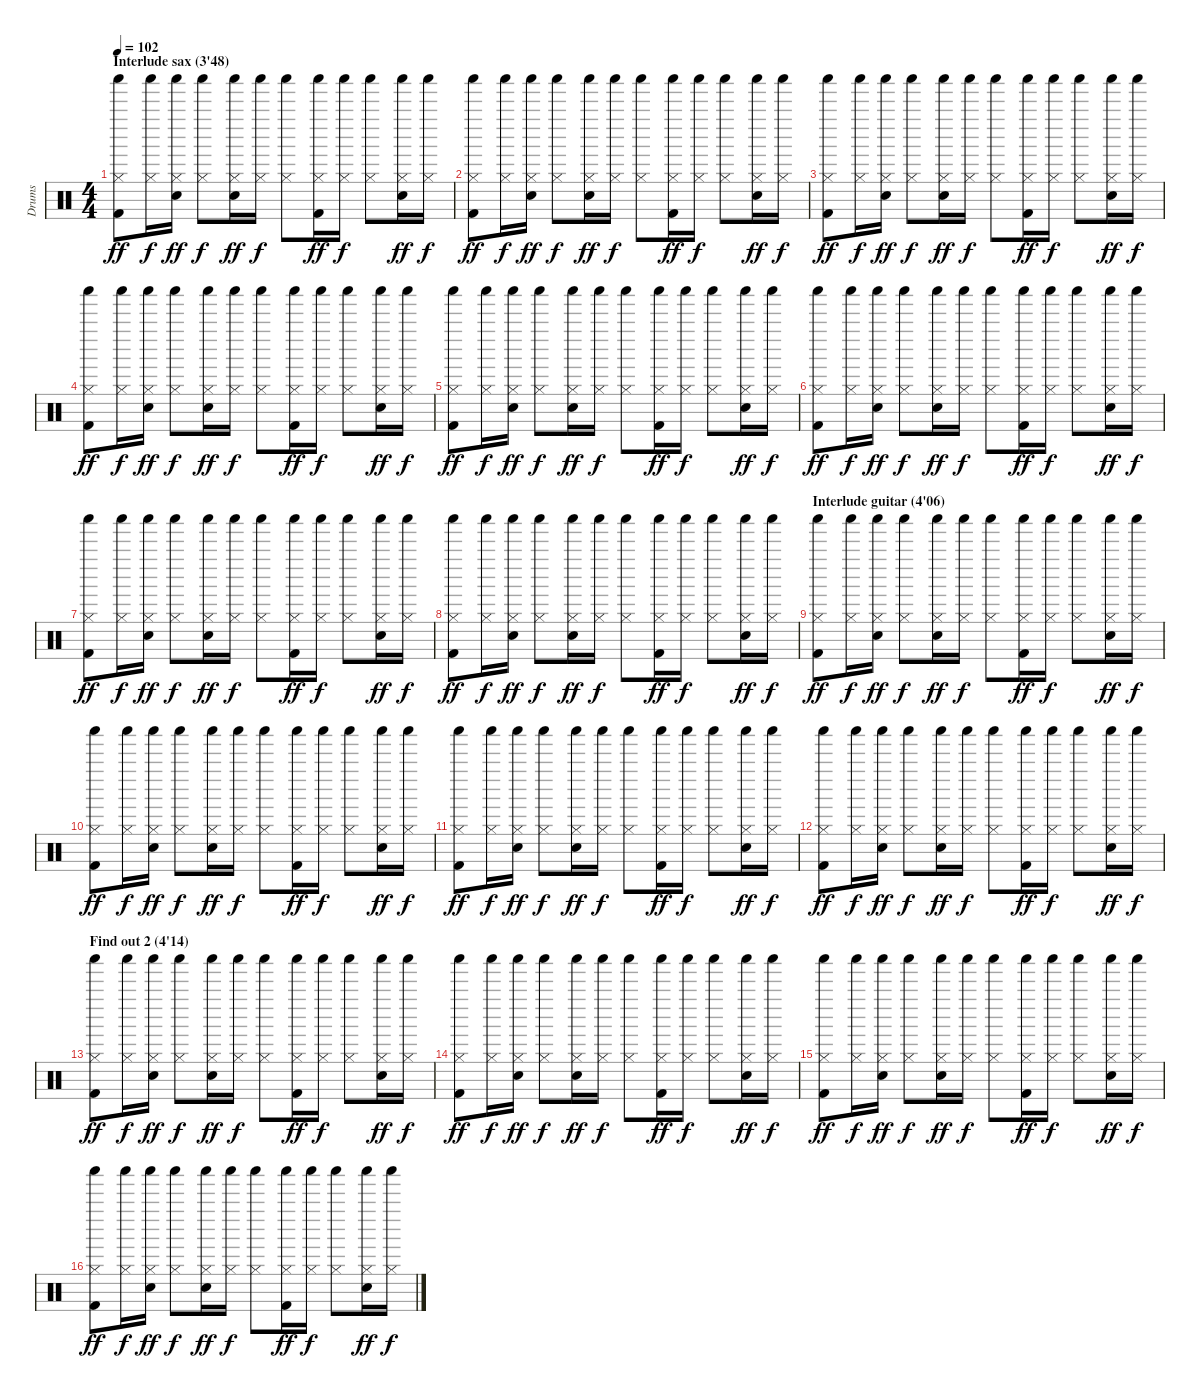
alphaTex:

\track ("Drums" "Drums") {instrument percussion}
\staff {score}
\articulation defaults
\ts (4 4)
\section ("" "Interlude sax (3'48)")
\tempo 102
\clef neutral
\ks c
("Hi-Hat (closed)" "Shaker (hit)" "Kick (hit) 2").8{dy ff} ("Hi-Hat (closed)" "Shaker (hit)").16{dy f} ("Hi-Hat (closed)" "Shaker (hit)" "Snare (hit) 2").16{dy ff} ("Hi-Hat (closed)" "Shaker (hit)").8{dy f} ("Hi-Hat (closed)" "Shaker (hit)" "Snare (hit) 2").16{dy ff} ("Hi-Hat (closed)" "Shaker (hit)").16{dy f} ("Hi-Hat (closed)" "Shaker (hit)").8 ("Hi-Hat (closed)" "Shaker (hit)" "Kick (hit) 2").16{dy ff} ("Hi-Hat (closed)" "Shaker (hit)").16{dy f} ("Hi-Hat (closed)" "Shaker (hit)").8 ("Hi-Hat (closed)" "Shaker (hit)" "Snare (hit) 2").16{dy ff} ("Hi-Hat (closed)" "Shaker (hit)").16{dy f} |
("Hi-Hat (closed)" "Shaker (hit)" "Kick (hit) 2").8{dy ff} ("Hi-Hat (closed)" "Shaker (hit)").16{dy f} ("Hi-Hat (closed)" "Shaker (hit)" "Snare (hit) 2").16{dy ff} ("Hi-Hat (closed)" "Shaker (hit)").8{dy f} ("Hi-Hat (closed)" "Shaker (hit)" "Snare (hit) 2").16{dy ff} ("Hi-Hat (closed)" "Shaker (hit)").16{dy f} ("Hi-Hat (closed)" "Shaker (hit)").8 ("Hi-Hat (closed)" "Shaker (hit)" "Kick (hit) 2").16{dy ff} ("Hi-Hat (closed)" "Shaker (hit)").16{dy f} ("Hi-Hat (closed)" "Shaker (hit)").8 ("Hi-Hat (closed)" "Shaker (hit)" "Snare (hit) 2").16{dy ff} ("Hi-Hat (closed)" "Shaker (hit)").16{dy f} |
("Hi-Hat (closed)" "Shaker (hit)" "Kick (hit) 2").8{dy ff} ("Hi-Hat (closed)" "Shaker (hit)").16{dy f} ("Hi-Hat (closed)" "Shaker (hit)" "Snare (hit) 2").16{dy ff} ("Hi-Hat (closed)" "Shaker (hit)").8{dy f} ("Hi-Hat (closed)" "Shaker (hit)" "Snare (hit) 2").16{dy ff} ("Hi-Hat (closed)" "Shaker (hit)").16{dy f} ("Hi-Hat (closed)" "Shaker (hit)").8 ("Hi-Hat (closed)" "Shaker (hit)" "Kick (hit) 2").16{dy ff} ("Hi-Hat (closed)" "Shaker (hit)").16{dy f} ("Hi-Hat (closed)" "Shaker (hit)").8 ("Hi-Hat (closed)" "Shaker (hit)" "Snare (hit) 2").16{dy ff} ("Hi-Hat (closed)" "Shaker (hit)").16{dy f} |
("Hi-Hat (closed)" "Shaker (hit)" "Kick (hit) 2").8{dy ff} ("Hi-Hat (closed)" "Shaker (hit)").16{dy f} ("Hi-Hat (closed)" "Shaker (hit)" "Snare (hit) 2").16{dy ff} ("Hi-Hat (closed)" "Shaker (hit)").8{dy f} ("Hi-Hat (closed)" "Shaker (hit)" "Snare (hit) 2").16{dy ff} ("Hi-Hat (closed)" "Shaker (hit)").16{dy f} ("Hi-Hat (closed)" "Shaker (hit)").8 ("Hi-Hat (closed)" "Shaker (hit)" "Kick (hit) 2").16{dy ff} ("Hi-Hat (closed)" "Shaker (hit)").16{dy f} ("Hi-Hat (closed)" "Shaker (hit)").8 ("Hi-Hat (closed)" "Shaker (hit)" "Snare (hit) 2").16{dy ff} ("Hi-Hat (closed)" "Shaker (hit)").16{dy f} |
("Hi-Hat (closed)" "Shaker (hit)" "Kick (hit) 2").8{dy ff} ("Hi-Hat (closed)" "Shaker (hit)").16{dy f} ("Hi-Hat (closed)" "Shaker (hit)" "Snare (hit) 2").16{dy ff} ("Hi-Hat (closed)" "Shaker (hit)").8{dy f} ("Hi-Hat (closed)" "Shaker (hit)" "Snare (hit) 2").16{dy ff} ("Hi-Hat (closed)" "Shaker (hit)").16{dy f} ("Hi-Hat (closed)" "Shaker (hit)").8 ("Hi-Hat (closed)" "Shaker (hit)" "Kick (hit) 2").16{dy ff} ("Hi-Hat (closed)" "Shaker (hit)").16{dy f} ("Hi-Hat (closed)" "Shaker (hit)").8 ("Hi-Hat (closed)" "Shaker (hit)" "Snare (hit) 2").16{dy ff} ("Hi-Hat (closed)" "Shaker (hit)").16{dy f} |
("Hi-Hat (closed)" "Shaker (hit)" "Kick (hit) 2").8{dy ff} ("Hi-Hat (closed)" "Shaker (hit)").16{dy f} ("Hi-Hat (closed)" "Shaker (hit)" "Snare (hit) 2").16{dy ff} ("Hi-Hat (closed)" "Shaker (hit)").8{dy f} ("Hi-Hat (closed)" "Shaker (hit)" "Snare (hit) 2").16{dy ff} ("Hi-Hat (closed)" "Shaker (hit)").16{dy f} ("Hi-Hat (closed)" "Shaker (hit)").8 ("Hi-Hat (closed)" "Shaker (hit)" "Kick (hit) 2").16{dy ff} ("Hi-Hat (closed)" "Shaker (hit)").16{dy f} ("Hi-Hat (closed)" "Shaker (hit)").8 ("Hi-Hat (closed)" "Shaker (hit)" "Snare (hit) 2").16{dy ff} ("Hi-Hat (closed)" "Shaker (hit)").16{dy f} |
("Hi-Hat (closed)" "Shaker (hit)" "Kick (hit) 2").8{dy ff} ("Hi-Hat (closed)" "Shaker (hit)").16{dy f} ("Hi-Hat (closed)" "Shaker (hit)" "Snare (hit) 2").16{dy ff} ("Hi-Hat (closed)" "Shaker (hit)").8{dy f} ("Hi-Hat (closed)" "Shaker (hit)" "Snare (hit) 2").16{dy ff} ("Hi-Hat (closed)" "Shaker (hit)").16{dy f} ("Hi-Hat (closed)" "Shaker (hit)").8 ("Hi-Hat (closed)" "Shaker (hit)" "Kick (hit) 2").16{dy ff} ("Hi-Hat (closed)" "Shaker (hit)").16{dy f} ("Hi-Hat (closed)" "Shaker (hit)").8 ("Hi-Hat (closed)" "Shaker (hit)" "Snare (hit) 2").16{dy ff} ("Hi-Hat (closed)" "Shaker (hit)").16{dy f} |
("Hi-Hat (closed)" "Shaker (hit)" "Kick (hit) 2").8{dy ff} ("Hi-Hat (closed)" "Shaker (hit)").16{dy f} ("Hi-Hat (closed)" "Shaker (hit)" "Snare (hit) 2").16{dy ff} ("Hi-Hat (closed)" "Shaker (hit)").8{dy f} ("Hi-Hat (closed)" "Shaker (hit)" "Snare (hit) 2").16{dy ff} ("Hi-Hat (closed)" "Shaker (hit)").16{dy f} ("Hi-Hat (closed)" "Shaker (hit)").8 ("Hi-Hat (closed)" "Shaker (hit)" "Kick (hit) 2").16{dy ff} ("Hi-Hat (closed)" "Shaker (hit)").16{dy f} ("Hi-Hat (closed)" "Shaker (hit)").8 ("Hi-Hat (closed)" "Shaker (hit)" "Snare (hit) 2").16{dy ff} ("Hi-Hat (closed)" "Shaker (hit)").16{dy f} |
\section ("" "Interlude guitar (4'06)")
("Hi-Hat (closed)" "Shaker (hit)" "Kick (hit) 2").8{dy ff} ("Hi-Hat (closed)" "Shaker (hit)").16{dy f} ("Hi-Hat (closed)" "Shaker (hit)" "Snare (hit) 2").16{dy ff} ("Hi-Hat (closed)" "Shaker (hit)").8{dy f} ("Hi-Hat (closed)" "Shaker (hit)" "Snare (hit) 2").16{dy ff} ("Hi-Hat (closed)" "Shaker (hit)").16{dy f} ("Hi-Hat (closed)" "Shaker (hit)").8 ("Hi-Hat (closed)" "Shaker (hit)" "Kick (hit) 2").16{dy ff} ("Hi-Hat (closed)" "Shaker (hit)").16{dy f} ("Hi-Hat (closed)" "Shaker (hit)").8 ("Hi-Hat (closed)" "Shaker (hit)" "Snare (hit) 2").16{dy ff} ("Hi-Hat (closed)" "Shaker (hit)").16{dy f} |
("Hi-Hat (closed)" "Shaker (hit)" "Kick (hit) 2").8{dy ff} ("Hi-Hat (closed)" "Shaker (hit)").16{dy f} ("Hi-Hat (closed)" "Shaker (hit)" "Snare (hit) 2").16{dy ff} ("Hi-Hat (closed)" "Shaker (hit)").8{dy f} ("Hi-Hat (closed)" "Shaker (hit)" "Snare (hit) 2").16{dy ff} ("Hi-Hat (closed)" "Shaker (hit)").16{dy f} ("Hi-Hat (closed)" "Shaker (hit)").8 ("Hi-Hat (closed)" "Shaker (hit)" "Kick (hit) 2").16{dy ff} ("Hi-Hat (closed)" "Shaker (hit)").16{dy f} ("Hi-Hat (closed)" "Shaker (hit)").8 ("Hi-Hat (closed)" "Shaker (hit)" "Snare (hit) 2").16{dy ff} ("Hi-Hat (closed)" "Shaker (hit)").16{dy f} |
("Hi-Hat (closed)" "Shaker (hit)" "Kick (hit) 2").8{dy ff} ("Hi-Hat (closed)" "Shaker (hit)").16{dy f} ("Hi-Hat (closed)" "Shaker (hit)" "Snare (hit) 2").16{dy ff} ("Hi-Hat (closed)" "Shaker (hit)").8{dy f} ("Hi-Hat (closed)" "Shaker (hit)" "Snare (hit) 2").16{dy ff} ("Hi-Hat (closed)" "Shaker (hit)").16{dy f} ("Hi-Hat (closed)" "Shaker (hit)").8 ("Hi-Hat (closed)" "Shaker (hit)" "Kick (hit) 2").16{dy ff} ("Hi-Hat (closed)" "Shaker (hit)").16{dy f} ("Hi-Hat (closed)" "Shaker (hit)").8 ("Hi-Hat (closed)" "Shaker (hit)" "Snare (hit) 2").16{dy ff} ("Hi-Hat (closed)" "Shaker (hit)").16{dy f} |
("Hi-Hat (closed)" "Shaker (hit)" "Kick (hit) 2").8{dy ff} ("Hi-Hat (closed)" "Shaker (hit)").16{dy f} ("Hi-Hat (closed)" "Shaker (hit)" "Snare (hit) 2").16{dy ff} ("Hi-Hat (closed)" "Shaker (hit)").8{dy f} ("Hi-Hat (closed)" "Shaker (hit)" "Snare (hit) 2").16{dy ff} ("Hi-Hat (closed)" "Shaker (hit)").16{dy f} ("Hi-Hat (closed)" "Shaker (hit)").8 ("Hi-Hat (closed)" "Shaker (hit)" "Kick (hit) 2").16{dy ff} ("Hi-Hat (closed)" "Shaker (hit)").16{dy f} ("Hi-Hat (closed)" "Shaker (hit)").8 ("Hi-Hat (closed)" "Shaker (hit)" "Snare (hit) 2").16{dy ff} ("Hi-Hat (closed)" "Shaker (hit)").16{dy f} |
\section ("" "Find out 2 (4'14)")
("Hi-Hat (closed)" "Shaker (hit)" "Kick (hit) 2").8{dy ff} ("Hi-Hat (closed)" "Shaker (hit)").16{dy f} ("Hi-Hat (closed)" "Shaker (hit)" "Snare (hit) 2").16{dy ff} ("Hi-Hat (closed)" "Shaker (hit)").8{dy f} ("Hi-Hat (closed)" "Shaker (hit)" "Snare (hit) 2").16{dy ff} ("Hi-Hat (closed)" "Shaker (hit)").16{dy f} ("Hi-Hat (closed)" "Shaker (hit)").8 ("Hi-Hat (closed)" "Shaker (hit)" "Kick (hit) 2").16{dy ff} ("Hi-Hat (closed)" "Shaker (hit)").16{dy f} ("Hi-Hat (closed)" "Shaker (hit)").8 ("Hi-Hat (closed)" "Shaker (hit)" "Snare (hit) 2").16{dy ff} ("Hi-Hat (closed)" "Shaker (hit)").16{dy f} |
("Hi-Hat (closed)" "Shaker (hit)" "Kick (hit) 2").8{dy ff} ("Hi-Hat (closed)" "Shaker (hit)").16{dy f} ("Hi-Hat (closed)" "Shaker (hit)" "Snare (hit) 2").16{dy ff} ("Hi-Hat (closed)" "Shaker (hit)").8{dy f} ("Hi-Hat (closed)" "Shaker (hit)" "Snare (hit) 2").16{dy ff} ("Hi-Hat (closed)" "Shaker (hit)").16{dy f} ("Hi-Hat (closed)" "Shaker (hit)").8 ("Hi-Hat (closed)" "Shaker (hit)" "Kick (hit) 2").16{dy ff} ("Hi-Hat (closed)" "Shaker (hit)").16{dy f} ("Hi-Hat (closed)" "Shaker (hit)").8 ("Hi-Hat (closed)" "Shaker (hit)" "Snare (hit) 2").16{dy ff} ("Hi-Hat (closed)" "Shaker (hit)").16{dy f} |
("Hi-Hat (closed)" "Shaker (hit)" "Kick (hit) 2").8{dy ff} ("Hi-Hat (closed)" "Shaker (hit)").16{dy f} ("Hi-Hat (closed)" "Shaker (hit)" "Snare (hit) 2").16{dy ff} ("Hi-Hat (closed)" "Shaker (hit)").8{dy f} ("Hi-Hat (closed)" "Shaker (hit)" "Snare (hit) 2").16{dy ff} ("Hi-Hat (closed)" "Shaker (hit)").16{dy f} ("Hi-Hat (closed)" "Shaker (hit)").8 ("Hi-Hat (closed)" "Shaker (hit)" "Kick (hit) 2").16{dy ff} ("Hi-Hat (closed)" "Shaker (hit)").16{dy f} ("Hi-Hat (closed)" "Shaker (hit)").8 ("Hi-Hat (closed)" "Shaker (hit)" "Snare (hit) 2").16{dy ff} ("Hi-Hat (closed)" "Shaker (hit)").16{dy f} |
("Hi-Hat (closed)" "Shaker (hit)" "Kick (hit) 2").8{dy ff} ("Hi-Hat (closed)" "Shaker (hit)").16{dy f} ("Hi-Hat (closed)" "Shaker (hit)" "Snare (hit) 2").16{dy ff} ("Hi-Hat (closed)" "Shaker (hit)").8{dy f} ("Hi-Hat (closed)" "Shaker (hit)" "Snare (hit) 2").16{dy ff} ("Hi-Hat (closed)" "Shaker (hit)").16{dy f} ("Hi-Hat (closed)" "Shaker (hit)").8 ("Hi-Hat (closed)" "Shaker (hit)" "Kick (hit) 2").16{dy ff} ("Hi-Hat (closed)" "Shaker (hit)").16{dy f} ("Hi-Hat (closed)" "Shaker (hit)").8 ("Hi-Hat (closed)" "Shaker (hit)" "Snare (hit) 2").16{dy ff} ("Hi-Hat (closed)" "Shaker (hit)").16{dy f}
